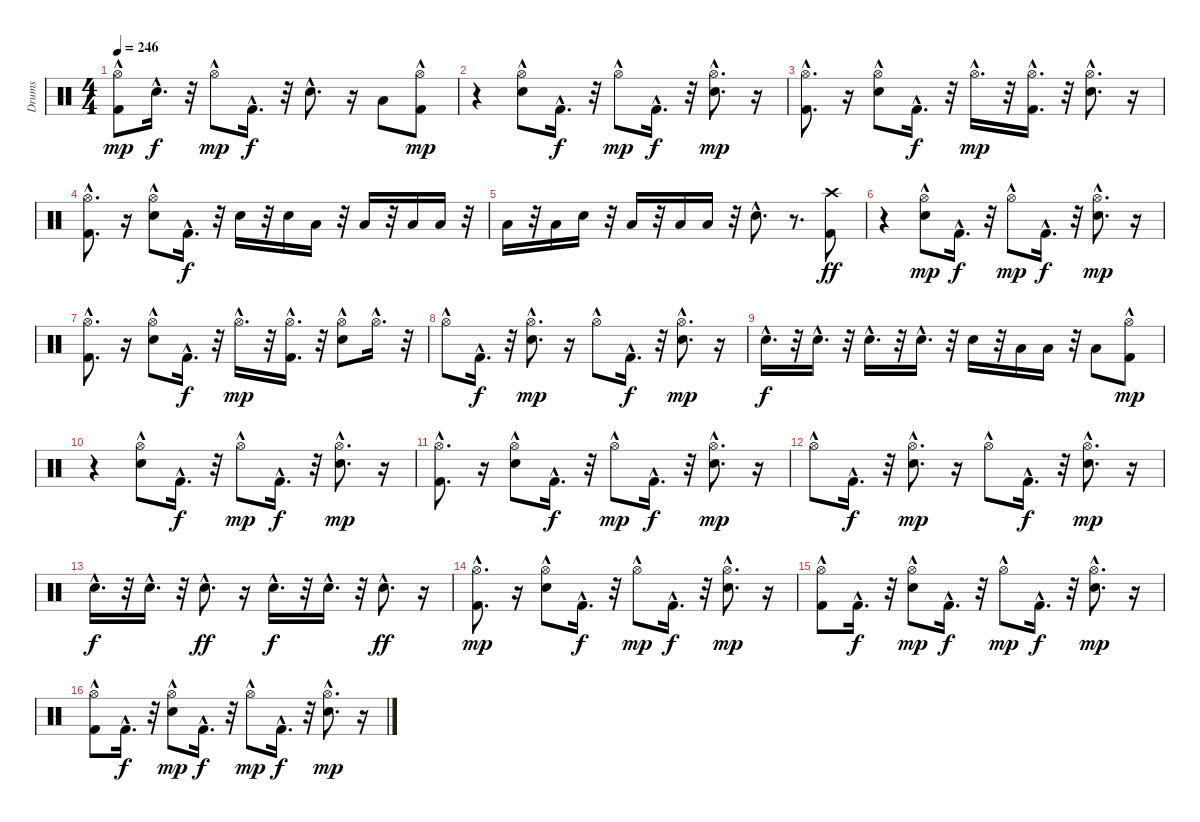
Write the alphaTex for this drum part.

\track ("Drums" "Drums") {instrument percussion}
\staff {score}
\articulation defaults
\ts (4 4)
\tempo 246
\clef neutral
\ks c
("Kick (hit) 2"{hac} "Hi-Hat (open)").8{dy mp} "Electric Snare (hit)"{hac}.16{d dy f} r.32 "Hi-Hat (open)"{hac}.8{dy mp} "Kick (hit) 2"{hac}.16{d dy f} r.32 "Electric Snare (hit)"{hac}.8{d} r.16 "Low Tom (hit)".8 ("Kick (hit) 2" "Hi-Hat (open)"{hac}).8{dy mp} |
r.4 ("Electric Snare (hit)"{hac} "Hi-Hat (open)"{hac}).8 "Kick (hit) 2"{hac}.16{d dy f} r.32 "Hi-Hat (open)"{hac}.8{dy mp} "Kick (hit) 2"{hac}.16{d dy f} r.32 ("Electric Snare (hit)"{hac} "Hi-Hat (open)"{hac}).8{d dy mp} r.16 |
("Kick (hit) 2"{hac} "Hi-Hat (open)"{hac}).8{d} r.16 ("Electric Snare (hit)"{hac} "Hi-Hat (open)"{hac}).8 "Kick (hit) 2"{hac}.16{d dy f} r.32 "Hi-Hat (open)"{hac}.16{d dy mp} r.32 ("Kick (hit) 2"{hac} "Hi-Hat (open)"{hac}).16{d} r.32 ("Electric Snare (hit)"{hac} "Hi-Hat (open)"{hac}).8{d} r.16 |
("Kick (hit) 2"{hac} "Hi-Hat (open)"{hac}).8{d} r.16 ("Electric Snare (hit)"{hac} "Hi-Hat (open)"{hac}).8 "Kick (hit) 2"{hac}.16{d dy f} r.32 "Electric Snare (hit)".16 r.32 "Electric Snare (hit)".16 "Low Tom (hit)".16 r.32 "Low Tom (hit)".16 r.32 "Low Tom (hit)".16 "Low Tom (hit)".16 r.32 |
"Low Tom (hit)".16 r.32 "Low Tom (hit)".16 "Electric Snare (hit)".16 r.32 "Low Tom (hit)".16 r.32 "Low Tom (hit)".16 "Low Tom (hit)".16 r.32 "Electric Snare (hit)"{hac}.8{d} r.8{d} ("Kick (hit) 2" "Crash high (hit)").8{dy ff} |
r.4 ("Electric Snare (hit)"{hac} "Hi-Hat (open)"{hac}).8{dy mp} "Kick (hit) 2"{hac}.16{d dy f} r.32 "Hi-Hat (open)"{hac}.8{dy mp} "Kick (hit) 2"{hac}.16{d dy f} r.32 ("Electric Snare (hit)"{hac} "Hi-Hat (open)"{hac}).8{d dy mp} r.16 |
("Kick (hit) 2"{hac} "Hi-Hat (open)"{hac}).8{d} r.16 ("Electric Snare (hit)"{hac} "Hi-Hat (open)"{hac}).8 "Kick (hit) 2"{hac}.16{d dy f} r.32 "Hi-Hat (open)"{hac}.16{d dy mp} r.32 ("Kick (hit) 2"{hac} "Hi-Hat (open)"{hac}).16{d} r.32 ("Electric Snare (hit)"{hac} "Hi-Hat (open)"{hac}).8 "Hi-Hat (open)"{hac}.16{d} r.32 |
"Hi-Hat (open)"{hac}.8 "Kick (hit) 2"{hac}.16{d dy f} r.32 ("Electric Snare (hit)"{hac} "Hi-Hat (open)"{hac}).8{d dy mp} r.16 "Hi-Hat (open)"{hac}.8 "Kick (hit) 2"{hac}.16{d dy f} r.32 ("Electric Snare (hit)"{hac} "Hi-Hat (open)"{hac}).8{d dy mp} r.16 |
"Electric Snare (hit)"{hac}.16{d dy f} r.32 "Electric Snare (hit)"{hac}.16{d} r.32 "Electric Snare (hit)"{hac}.16{d} r.32 "Electric Snare (hit)"{hac}.16{d} r.32 "Electric Snare (hit)".16 r.32 "Low Tom (hit)".16 "Low Tom (hit)".16 r.32 "Low Tom (hit)".8 ("Kick (hit) 2" "Hi-Hat (open)"{hac}).8{dy mp} |
r.4 ("Electric Snare (hit)"{hac} "Hi-Hat (open)"{hac}).8 "Kick (hit) 2"{hac}.16{d dy f} r.32 "Hi-Hat (open)"{hac}.8{dy mp} "Kick (hit) 2"{hac}.16{d dy f} r.32 ("Electric Snare (hit)"{hac} "Hi-Hat (open)"{hac}).8{d dy mp} r.16 |
("Kick (hit) 2"{hac} "Hi-Hat (open)"{hac}).8{d} r.16 ("Electric Snare (hit)"{hac} "Hi-Hat (open)"{hac}).8 "Kick (hit) 2"{hac}.16{d dy f} r.32 "Hi-Hat (open)"{hac}.8{dy mp} "Kick (hit) 2"{hac}.16{d dy f} r.32 ("Electric Snare (hit)"{hac} "Hi-Hat (open)"{hac}).8{d dy mp} r.16 |
"Hi-Hat (open)"{hac}.8 "Kick (hit) 2"{hac}.16{d dy f} r.32 ("Electric Snare (hit)"{hac} "Hi-Hat (open)"{hac}).8{d dy mp} r.16 "Hi-Hat (open)"{hac}.8 "Kick (hit) 2"{hac}.16{d dy f} r.32 ("Electric Snare (hit)"{hac} "Hi-Hat (open)"{hac}).8{d dy mp} r.16 |
"Electric Snare (hit)"{hac}.16{d dy f} r.32 "Electric Snare (hit)"{hac}.16{d} r.32 "Electric Snare (hit)"{hac}.8{d dy ff} r.16 "Electric Snare (hit)"{hac}.16{d dy f} r.32 "Electric Snare (hit)"{hac}.16{d} r.32 "Electric Snare (hit)"{hac}.8{d dy ff} r.16 |
("Kick (hit) 2"{hac} "Hi-Hat (open)"{hac}).8{d dy mp} r.16 ("Electric Snare (hit)"{hac} "Hi-Hat (open)"{hac}).8 "Kick (hit) 2"{hac}.16{d dy f} r.32 "Hi-Hat (open)"{hac}.8{dy mp} "Kick (hit) 2"{hac}.16{d dy f} r.32 ("Electric Snare (hit)"{hac} "Hi-Hat (open)"{hac}).8{d dy mp} r.16 |
("Kick (hit) 2"{hac} "Hi-Hat (open)"{hac}).8 "Kick (hit) 2"{hac}.16{d dy f} r.32 ("Electric Snare (hit)"{hac} "Hi-Hat (open)"{hac}).8{dy mp} "Kick (hit) 2"{hac}.16{d dy f} r.32 "Hi-Hat (open)"{hac}.8{dy mp} "Kick (hit) 2"{hac}.16{d dy f} r.32 ("Electric Snare (hit)"{hac} "Hi-Hat (open)"{hac}).8{d dy mp} r.16 |
("Kick (hit) 2"{hac} "Hi-Hat (open)"{hac}).8 "Kick (hit) 2"{hac}.16{d dy f} r.32 ("Electric Snare (hit)"{hac} "Hi-Hat (open)"{hac}).8{dy mp} "Kick (hit) 2"{hac}.16{d dy f} r.32 "Hi-Hat (open)"{hac}.8{dy mp} "Kick (hit) 2"{hac}.16{d dy f} r.32 ("Electric Snare (hit)"{hac} "Hi-Hat (open)"{hac}).8{d dy mp} r.16
